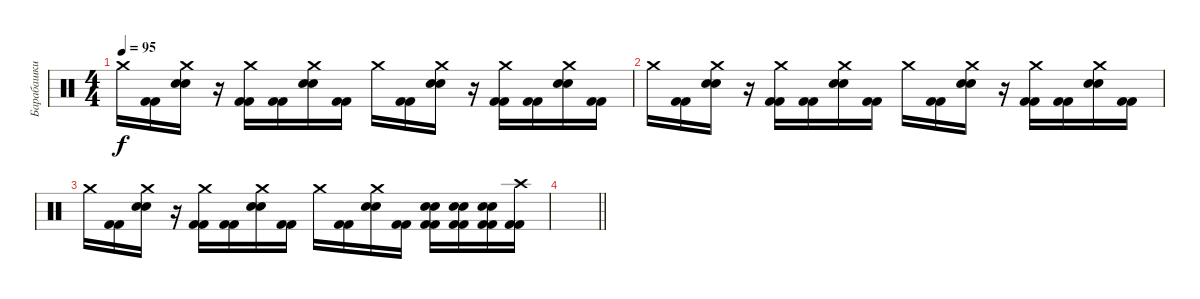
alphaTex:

\track ("Барабашки" "Барабашки") {instrument percussion}
\staff {score}
\articulation defaults
\ts (4 4)
\tempo 95
\clef neutral
\ks c "Crash medium (hit)".16{dy f}
("Kick (hit) 2" "Kick (hit) 2").16 ("Crash medium (hit)" "Electric Snare (hit)" "Electric Snare (hit)").16 r.16 ("Crash medium (hit)" "Kick (hit) 2" "Kick (hit) 2").16 ("Kick (hit) 2" "Kick (hit) 2").16 ("Crash medium (hit)" "Electric Snare (hit)" "Electric Snare (hit)").16 ("Kick (hit) 2" "Kick (hit) 2").16 "Crash medium (hit)".16 ("Kick (hit) 2" "Kick (hit) 2").16 ("Crash medium (hit)" "Electric Snare (hit)" "Electric Snare (hit)").16 r.16 ("Crash medium (hit)" "Kick (hit) 2" "Kick (hit) 2").16 ("Kick (hit) 2" "Kick (hit) 2").16 ("Crash medium (hit)" "Electric Snare (hit)" "Electric Snare (hit)").16 ("Kick (hit) 2" "Kick (hit) 2").16 |
"Crash medium (hit)".16 ("Kick (hit) 2" "Kick (hit) 2").16 ("Crash medium (hit)" "Electric Snare (hit)" "Electric Snare (hit)").16 r.16 ("Crash medium (hit)" "Kick (hit) 2" "Kick (hit) 2").16 ("Kick (hit) 2" "Kick (hit) 2").16 ("Crash medium (hit)" "Electric Snare (hit)" "Electric Snare (hit)").16 ("Kick (hit) 2" "Kick (hit) 2").16 "Crash medium (hit)".16 ("Kick (hit) 2" "Kick (hit) 2").16 ("Crash medium (hit)" "Electric Snare (hit)" "Electric Snare (hit)").16 r.16 ("Crash medium (hit)" "Kick (hit) 2" "Kick (hit) 2").16 ("Kick (hit) 2" "Kick (hit) 2").16 ("Crash medium (hit)" "Electric Snare (hit)" "Electric Snare (hit)").16 ("Kick (hit) 2" "Kick (hit) 2").16 |
"Crash medium (hit)".16 ("Kick (hit) 2" "Kick (hit) 2").16 ("Crash medium (hit)" "Electric Snare (hit)" "Electric Snare (hit)").16 r.16 ("Crash medium (hit)" "Kick (hit) 2" "Kick (hit) 2").16 ("Kick (hit) 2" "Kick (hit) 2").16 ("Crash medium (hit)" "Electric Snare (hit)" "Electric Snare (hit)").16 ("Kick (hit) 2" "Kick (hit) 2").16 "Crash medium (hit)".16 ("Kick (hit) 2" "Kick (hit) 2").16 ("Crash medium (hit)" "Electric Snare (hit)" "Electric Snare (hit)").16 ("Kick (hit) 2" "Kick (hit) 2").16 ("Electric Snare (hit)" "Electric Snare (hit)" "Kick (hit) 2" "Kick (hit) 2").16 ("Electric Snare (hit)" "Electric Snare (hit)" "Kick (hit) 2" "Kick (hit) 2").16 ("Electric Snare (hit)" "Electric Snare (hit)" "Kick (hit) 2" "Kick (hit) 2").16 ("Crash high (hit)" "Kick (hit) 2" "Kick (hit) 2").16 |
\barLineRight lightlight
